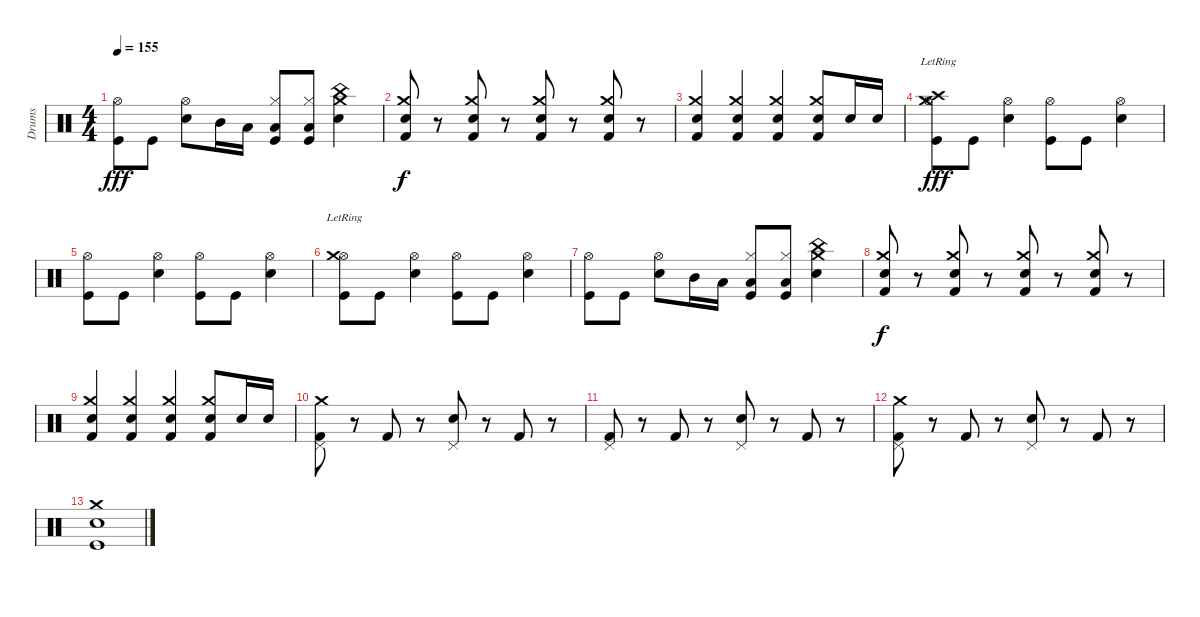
\track ("Drums" "Drums") {instrument percussion}
\staff {score}
\articulation defaults
\ts (4 4)
\tempo 155
\clef neutral
\ks c
("Hi-Hat (open)" "Kick (hit)").8{dy fff} "Kick (hit)".8 ("Hi-Hat (open)" "Snare (hit) 2").8 "Mid Tom (hit)".16 "Low Tom (hit)".16 ("Hi-Hat (closed)" "Low Floor Tom (hit)" "Kick (hit)").8 ("Hi-Hat (closed)" "Low Floor Tom (hit)" "Kick (hit)").8 ("Crash medium (hit)" "China (hit)" "Snare (hit) 2").4 |
("Kick (hit) 2" "Crash medium (hit)" "Snare (hit) 2").8{dy f} r.8 ("Kick (hit) 2" "Crash medium (hit)" "Snare (hit) 2").8 r.8 ("Kick (hit) 2" "Crash medium (hit)" "Snare (hit) 2").8 r.8 ("Kick (hit) 2" "Crash medium (hit)" "Snare (hit) 2").8 r.8 |
("Crash medium (hit)" "Snare (hit) 2" "Kick (hit) 2").4 ("Crash medium (hit)" "Snare (hit) 2" "Kick (hit) 2").4 ("Crash medium (hit)" "Snare (hit) 2" "Kick (hit) 2").4 ("Crash medium (hit)" "Snare (hit) 2" "Kick (hit) 2").8 "Snare (hit) 2".16 "Snare (hit) 2".16 |
("Crash high (hit)"{lr} "Hi-Hat (open)" "Crash medium (hit)"{lr} "Kick (hit)").8{dy fff} "Kick (hit)".8 ("Hi-Hat (open)" "Snare (hit) 2").4 ("Hi-Hat (open)" "Kick (hit)").8 "Kick (hit)".8 ("Hi-Hat (open)" "Snare (hit) 2").4 |
("Hi-Hat (open)" "Kick (hit)").8 "Kick (hit)".8 ("Hi-Hat (open)" "Snare (hit) 2").4 ("Hi-Hat (open)" "Kick (hit)").8 "Kick (hit)".8 ("Hi-Hat (open)" "Snare (hit) 2").4 |
("Hi-Hat (open)" "Crash medium (hit)"{lr} "Kick (hit)").8 "Kick (hit)".8 ("Hi-Hat (open)" "Snare (hit) 2").4 ("Hi-Hat (open)" "Kick (hit)").8 "Kick (hit)".8 ("Hi-Hat (open)" "Snare (hit) 2").4 |
("Hi-Hat (open)" "Kick (hit)").8 "Kick (hit)".8 ("Hi-Hat (open)" "Snare (hit) 2").8 "Mid Tom (hit)".16 "Low Tom (hit)".16 ("Hi-Hat (closed)" "Low Floor Tom (hit)" "Kick (hit)").8 ("Hi-Hat (closed)" "Low Floor Tom (hit)" "Kick (hit)").8 ("Crash medium (hit)" "China (hit)" "Snare (hit) 2").4 |
("Kick (hit) 2" "Crash medium (hit)" "Snare (hit) 2").8{dy f} r.8 ("Kick (hit) 2" "Crash medium (hit)" "Snare (hit) 2").8 r.8 ("Kick (hit) 2" "Crash medium (hit)" "Snare (hit) 2").8 r.8 ("Kick (hit) 2" "Crash medium (hit)" "Snare (hit) 2").8 r.8 |
("Crash medium (hit)" "Snare (hit) 2" "Kick (hit) 2").4 ("Crash medium (hit)" "Snare (hit) 2" "Kick (hit) 2").4 ("Crash medium (hit)" "Snare (hit) 2" "Kick (hit) 2").4 ("Crash medium (hit)" "Snare (hit) 2" "Kick (hit) 2").8 "Snare (hit) 2".16 "Snare (hit) 2".16 |
("Pedal Hi-Hat (hit)" "Crash medium (hit)" "Kick (hit) 2").8 r.8 "Kick (hit) 2".8 r.8 ("Pedal Hi-Hat (hit)" "Snare (hit) 2").8 r.8 "Kick (hit) 2".8 r.8 |
("Pedal Hi-Hat (hit)" "Kick (hit) 2").8 r.8 "Kick (hit) 2".8 r.8 ("Pedal Hi-Hat (hit)" "Snare (hit) 2").8 r.8 "Kick (hit) 2".8 r.8 |
("Pedal Hi-Hat (hit)" "Crash medium (hit)" "Kick (hit) 2").8 r.8 "Kick (hit) 2".8 r.8 ("Pedal Hi-Hat (hit)" "Snare (hit) 2").8 r.8 "Kick (hit) 2".8 r.8 |
("Snare (hit) 2" "Crash medium (hit)" "Kick (hit)").1
